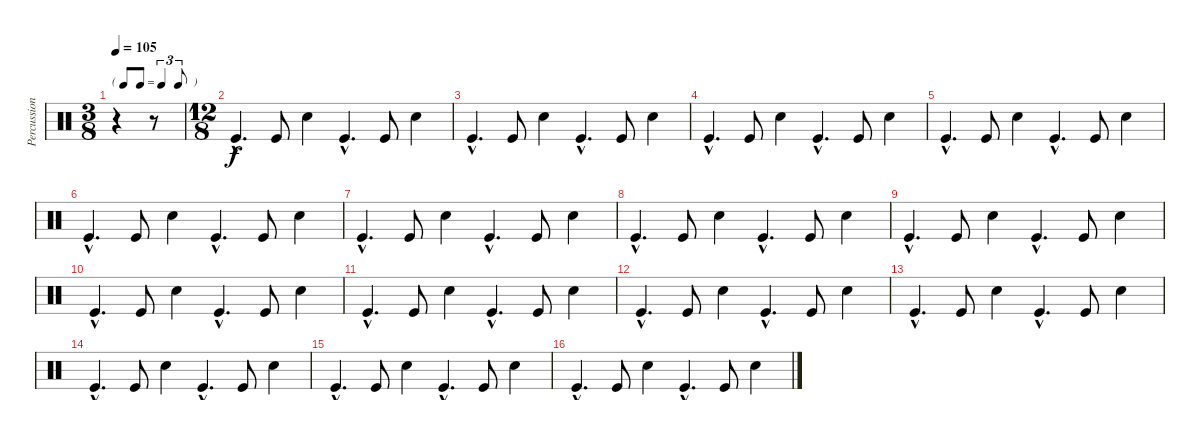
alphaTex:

\track ("Percussion" "Percussion") {instrument percussion}
\staff {score}
\articulation defaults
\ts (3 8)
\tf triplet8th
\tempo 105
\clef neutral
\ks c
r.4{dy f} r.8 |
\ts (12 8)
"Kick (hit)"{hac}.4{d} "Kick (hit)".8 "Snare (hit) 2".4 "Kick (hit)"{hac}.4{d} "Kick (hit)".8 "Snare (hit) 2".4 |
"Kick (hit)"{hac}.4{d} "Kick (hit)".8 "Snare (hit) 2".4 "Kick (hit)"{hac}.4{d} "Kick (hit)".8 "Snare (hit) 2".4 |
"Kick (hit)"{hac}.4{d} "Kick (hit)".8 "Snare (hit) 2".4 "Kick (hit)"{hac}.4{d} "Kick (hit)".8 "Snare (hit) 2".4 |
"Kick (hit)"{hac}.4{d} "Kick (hit)".8 "Snare (hit) 2".4 "Kick (hit)"{hac}.4{d} "Kick (hit)".8 "Snare (hit) 2".4 |
"Kick (hit)"{hac}.4{d} "Kick (hit)".8 "Snare (hit) 2".4 "Kick (hit)"{hac}.4{d} "Kick (hit)".8 "Snare (hit) 2".4 |
"Kick (hit)"{hac}.4{d} "Kick (hit)".8 "Snare (hit) 2".4 "Kick (hit)"{hac}.4{d} "Kick (hit)".8 "Snare (hit) 2".4 |
"Kick (hit)"{hac}.4{d} "Kick (hit)".8 "Snare (hit) 2".4 "Kick (hit)"{hac}.4{d} "Kick (hit)".8 "Snare (hit) 2".4 |
"Kick (hit)"{hac}.4{d} "Kick (hit)".8 "Snare (hit) 2".4 "Kick (hit)"{hac}.4{d} "Kick (hit)".8 "Snare (hit) 2".4 |
"Kick (hit)"{hac}.4{d} "Kick (hit)".8 "Snare (hit) 2".4 "Kick (hit)"{hac}.4{d} "Kick (hit)".8 "Snare (hit) 2".4 |
"Kick (hit)"{hac}.4{d} "Kick (hit)".8 "Snare (hit) 2".4 "Kick (hit)"{hac}.4{d} "Kick (hit)".8 "Snare (hit) 2".4 |
"Kick (hit)"{hac}.4{d} "Kick (hit)".8 "Snare (hit) 2".4 "Kick (hit)"{hac}.4{d} "Kick (hit)".8 "Snare (hit) 2".4 |
"Kick (hit)"{hac}.4{d} "Kick (hit)".8 "Snare (hit) 2".4 "Kick (hit)"{hac}.4{d} "Kick (hit)".8 "Snare (hit) 2".4 |
"Kick (hit)"{hac}.4{d} "Kick (hit)".8 "Snare (hit) 2".4 "Kick (hit)"{hac}.4{d} "Kick (hit)".8 "Snare (hit) 2".4 |
"Kick (hit)"{hac}.4{d} "Kick (hit)".8 "Snare (hit) 2".4 "Kick (hit)"{hac}.4{d} "Kick (hit)".8 "Snare (hit) 2".4 |
"Kick (hit)"{hac}.4{d} "Kick (hit)".8 "Snare (hit) 2".4 "Kick (hit)"{hac}.4{d} "Kick (hit)".8 "Snare (hit) 2".4
